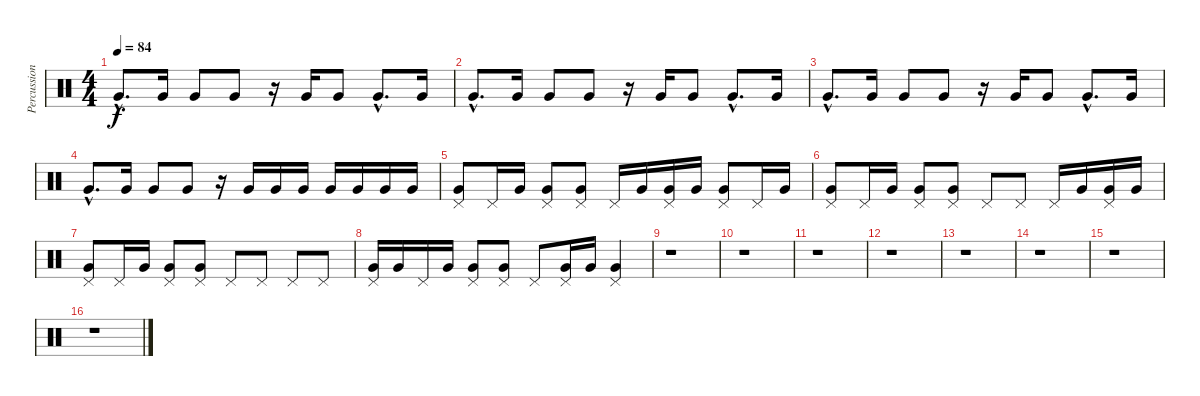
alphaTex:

\track ("Percussion" "Percussion") {instrument percussion}
\staff {score}
\articulation defaults
\ts (4 4)
\tempo 84
\clef neutral
\ks c "Very Low Tom (hit)"{hac}.8{d dy f} "Very Low Tom (hit)".16 "Very Low Tom (hit)".8 "Very Low Tom (hit)".8
r.16 "Very Low Tom (hit)".16 "Very Low Tom (hit)".8 "Very Low Tom (hit)"{hac}.8{d} "Very Low Tom (hit)".16 |
"Very Low Tom (hit)"{hac}.8{d} "Very Low Tom (hit)".16 "Very Low Tom (hit)".8 "Very Low Tom (hit)".8 r.16 "Very Low Tom (hit)".16 "Very Low Tom (hit)".8 "Very Low Tom (hit)"{hac}.8{d} "Very Low Tom (hit)".16 |
"Very Low Tom (hit)"{hac}.8{d} "Very Low Tom (hit)".16 "Very Low Tom (hit)".8 "Very Low Tom (hit)".8 r.16 "Very Low Tom (hit)".16 "Very Low Tom (hit)".8 "Very Low Tom (hit)"{hac}.8{d} "Very Low Tom (hit)".16 |
"Very Low Tom (hit)"{hac}.8{d} "Very Low Tom (hit)".16 "Very Low Tom (hit)".8 "Very Low Tom (hit)".8 r.16 "Very Low Tom (hit)".16 "Very Low Tom (hit)".16 "Very Low Tom (hit)".16 "Very Low Tom (hit)".16 "Very Low Tom (hit)".16 "Very Low Tom (hit)".16 "Very Low Tom (hit)".16 |
("Pedal Hi-Hat (hit)" "Very Low Tom (hit)").8 "Pedal Hi-Hat (hit)".16 "Very Low Tom (hit)".16 ("Pedal Hi-Hat (hit)" "Very Low Tom (hit)").8 ("Pedal Hi-Hat (hit)" "Very Low Tom (hit)").8 "Pedal Hi-Hat (hit)".16 "Very Low Tom (hit)".16 ("Pedal Hi-Hat (hit)" "Very Low Tom (hit)").16 "Very Low Tom (hit)".16 ("Pedal Hi-Hat (hit)" "Very Low Tom (hit)").8 "Pedal Hi-Hat (hit)".16 "Very Low Tom (hit)".16 |
("Pedal Hi-Hat (hit)" "Very Low Tom (hit)").8 "Pedal Hi-Hat (hit)".16 "Very Low Tom (hit)".16 ("Pedal Hi-Hat (hit)" "Very Low Tom (hit)").8 ("Pedal Hi-Hat (hit)" "Very Low Tom (hit)").8 "Pedal Hi-Hat (hit)".8 "Pedal Hi-Hat (hit)".8 "Pedal Hi-Hat (hit)".16 "Very Low Tom (hit)".16 ("Pedal Hi-Hat (hit)" "Very Low Tom (hit)").16 "Very Low Tom (hit)".16 |
("Pedal Hi-Hat (hit)" "Very Low Tom (hit)").8 "Pedal Hi-Hat (hit)".16 "Very Low Tom (hit)".16 ("Pedal Hi-Hat (hit)" "Very Low Tom (hit)").8 ("Pedal Hi-Hat (hit)" "Very Low Tom (hit)").8 "Pedal Hi-Hat (hit)".8 "Pedal Hi-Hat (hit)".8 "Pedal Hi-Hat (hit)".8 "Pedal Hi-Hat (hit)".8 |
("Pedal Hi-Hat (hit)" "Very Low Tom (hit)").16 "Very Low Tom (hit)".16 "Pedal Hi-Hat (hit)".16 "Very Low Tom (hit)".16 ("Pedal Hi-Hat (hit)" "Very Low Tom (hit)").8 ("Pedal Hi-Hat (hit)" "Very Low Tom (hit)").8 "Pedal Hi-Hat (hit)".8 ("Pedal Hi-Hat (hit)" "Very Low Tom (hit)").16 "Very Low Tom (hit)".16 ("Pedal Hi-Hat (hit)" "Very Low Tom (hit)").4 |
r.1 |
r.1 |
r.1 |
r.1 |
r.1 |
r.1 |
r.1 |
r.1
